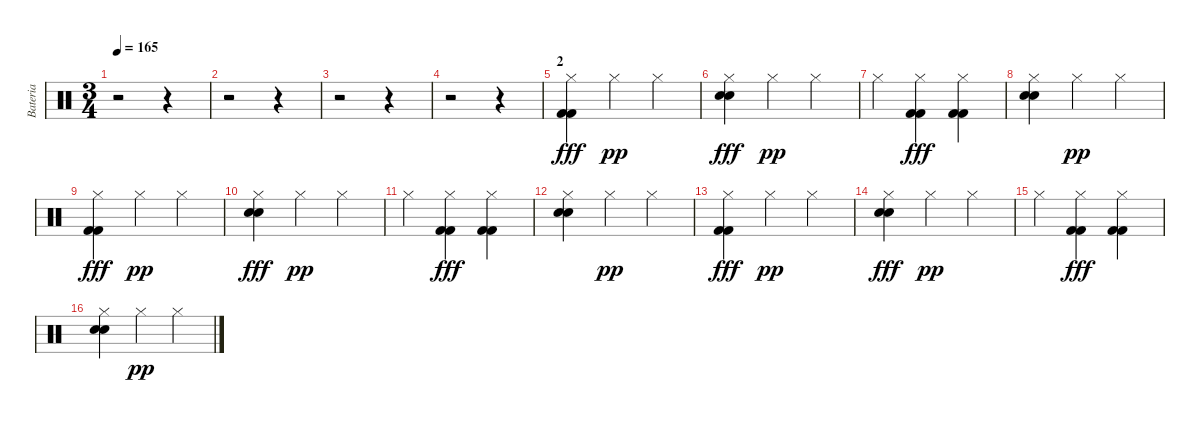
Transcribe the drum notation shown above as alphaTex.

\track ("Bateria" "Bateria") {instrument percussion}
\staff {score}
\articulation defaults
\ts (3 4)
\tempo 165
\clef neutral
\ks c
r.2{dy f} r.4 |
r.2 r.4 |
r.2 r.4 |
r.2 r.4 |
\section ("" "2")
("Hi-Hat (closed)" "Kick (hit) 2" "Kick (hit) 2").4{dy fff} "Hi-Hat (closed)".4{dy pp} "Hi-Hat (closed)".4 |
("Hi-Hat (closed)" "Snare (hit) 2" "Electric Snare (hit)").4{dy fff} "Hi-Hat (closed)".4{dy pp} "Hi-Hat (closed)".4 |
"Hi-Hat (closed)".4 ("Hi-Hat (closed)" "Kick (hit) 2" "Kick (hit) 2").4{dy fff} ("Hi-Hat (closed)" "Kick (hit) 2" "Kick (hit) 2").4 |
("Hi-Hat (closed)" "Electric Snare (hit)" "Snare (hit) 2").4 "Hi-Hat (closed)".4{dy pp} "Hi-Hat (closed)".4 |
("Hi-Hat (closed)" "Kick (hit) 2" "Kick (hit) 2").4{dy fff} "Hi-Hat (closed)".4{dy pp} "Hi-Hat (closed)".4 |
("Hi-Hat (closed)" "Snare (hit) 2" "Electric Snare (hit)").4{dy fff} "Hi-Hat (closed)".4{dy pp} "Hi-Hat (closed)".4 |
"Hi-Hat (closed)".4 ("Hi-Hat (closed)" "Kick (hit) 2" "Kick (hit) 2").4{dy fff} ("Hi-Hat (closed)" "Kick (hit) 2" "Kick (hit) 2").4 |
("Hi-Hat (closed)" "Electric Snare (hit)" "Snare (hit) 2").4 "Hi-Hat (closed)".4{dy pp} "Hi-Hat (closed)".4 |
("Hi-Hat (closed)" "Kick (hit) 2" "Kick (hit) 2").4{dy fff} "Hi-Hat (closed)".4{dy pp} "Hi-Hat (closed)".4 |
("Hi-Hat (closed)" "Snare (hit) 2" "Electric Snare (hit)").4{dy fff} "Hi-Hat (closed)".4{dy pp} "Hi-Hat (closed)".4 |
"Hi-Hat (closed)".4 ("Hi-Hat (closed)" "Kick (hit) 2" "Kick (hit) 2").4{dy fff} ("Hi-Hat (closed)" "Kick (hit) 2" "Kick (hit) 2").4 |
("Hi-Hat (closed)" "Electric Snare (hit)" "Snare (hit) 2").4 "Hi-Hat (closed)".4{dy pp} "Hi-Hat (closed)".4
